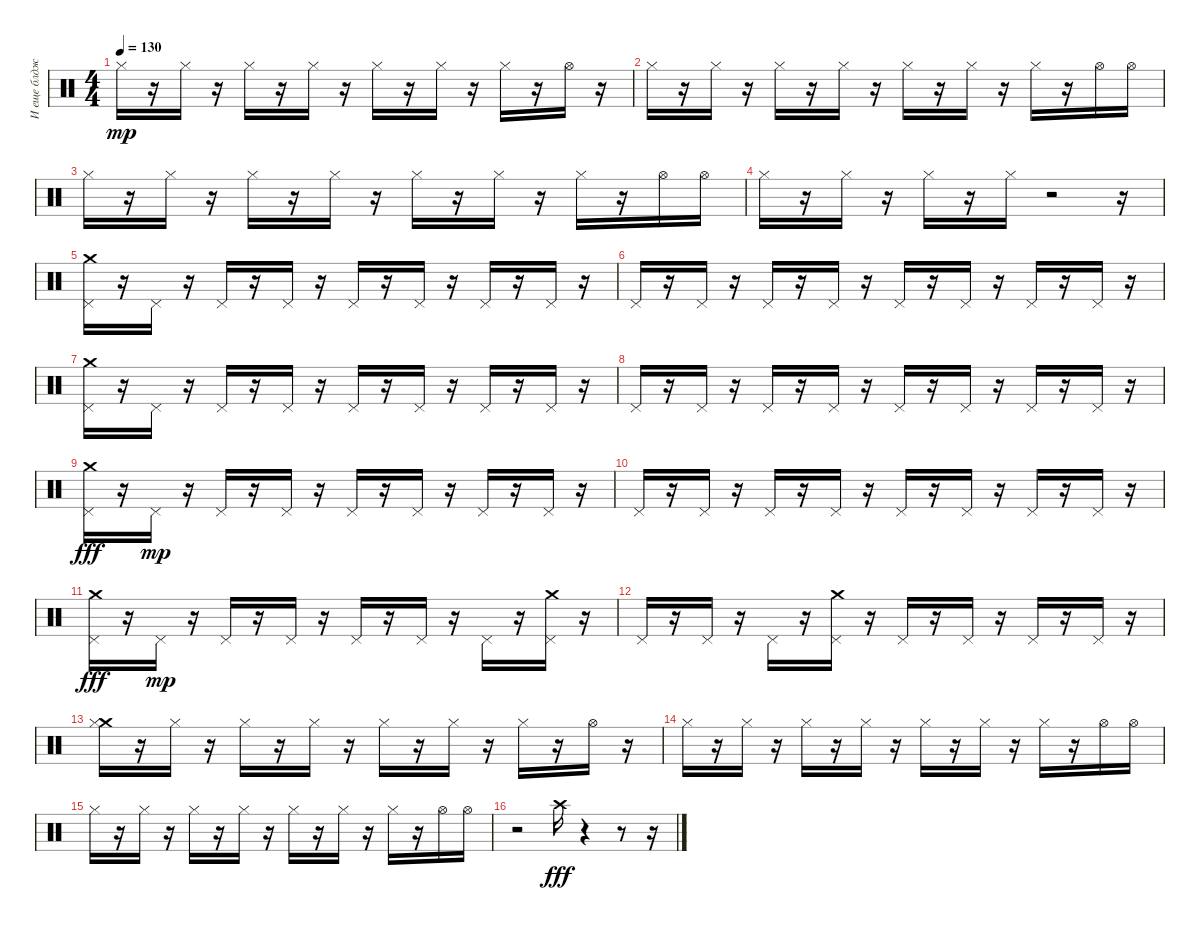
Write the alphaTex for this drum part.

\track ("И еще блджад" "И еще блдж") {instrument percussion}
\staff {score}
\articulation defaults
\ts (4 4)
\tempo 130
\clef neutral
\ks c "Hi-Hat (closed)".16{dy mp}
r.16 "Hi-Hat (closed)".16 r.16 "Hi-Hat (closed)".16 r.16 "Hi-Hat (closed)".16 r.16 "Hi-Hat (closed)".16 r.16 "Hi-Hat (closed)".16 r.16 "Hi-Hat (closed)".16 r.16 "Hi-Hat (open)".16 r.16 |
"Hi-Hat (closed)".16 r.16 "Hi-Hat (closed)".16 r.16 "Hi-Hat (closed)".16 r.16 "Hi-Hat (closed)".16 r.16 "Hi-Hat (closed)".16 r.16 "Hi-Hat (closed)".16 r.16 "Hi-Hat (closed)".16 r.16 "Hi-Hat (open)".16 "Hi-Hat (open)".16 |
"Hi-Hat (closed)".16 r.16 "Hi-Hat (closed)".16 r.16 "Hi-Hat (closed)".16 r.16 "Hi-Hat (closed)".16 r.16 "Hi-Hat (closed)".16 r.16 "Hi-Hat (closed)".16 r.16 "Hi-Hat (closed)".16 r.16 "Hi-Hat (open)".16 "Hi-Hat (open)".16 |
"Hi-Hat (closed)".16 r.16 "Hi-Hat (closed)".16 r.16 "Hi-Hat (closed)".16 r.16 "Hi-Hat (closed)".16 r.2 r.16 |
("Crash medium (hit)" "Pedal Hi-Hat (hit)").16 r.16 "Pedal Hi-Hat (hit)".16 r.16 "Pedal Hi-Hat (hit)".16 r.16 "Pedal Hi-Hat (hit)".16 r.16 "Pedal Hi-Hat (hit)".16 r.16 "Pedal Hi-Hat (hit)".16 r.16 "Pedal Hi-Hat (hit)".16 r.16 "Pedal Hi-Hat (hit)".16 r.16 |
"Pedal Hi-Hat (hit)".16 r.16 "Pedal Hi-Hat (hit)".16 r.16 "Pedal Hi-Hat (hit)".16 r.16 "Pedal Hi-Hat (hit)".16 r.16 "Pedal Hi-Hat (hit)".16 r.16 "Pedal Hi-Hat (hit)".16 r.16 "Pedal Hi-Hat (hit)".16 r.16 "Pedal Hi-Hat (hit)".16 r.16 |
("Crash medium (hit)" "Pedal Hi-Hat (hit)").16 r.16 "Pedal Hi-Hat (hit)".16 r.16 "Pedal Hi-Hat (hit)".16 r.16 "Pedal Hi-Hat (hit)".16 r.16 "Pedal Hi-Hat (hit)".16 r.16 "Pedal Hi-Hat (hit)".16 r.16 "Pedal Hi-Hat (hit)".16 r.16 "Pedal Hi-Hat (hit)".16 r.16 |
"Pedal Hi-Hat (hit)".16 r.16 "Pedal Hi-Hat (hit)".16 r.16 "Pedal Hi-Hat (hit)".16 r.16 "Pedal Hi-Hat (hit)".16 r.16 "Pedal Hi-Hat (hit)".16 r.16 "Pedal Hi-Hat (hit)".16 r.16 "Pedal Hi-Hat (hit)".16 r.16 "Pedal Hi-Hat (hit)".16 r.16 |
("Pedal Hi-Hat (hit)" "Crash medium (hit)").16{dy fff} r.16 "Pedal Hi-Hat (hit)".16{dy mp} r.16 "Pedal Hi-Hat (hit)".16 r.16 "Pedal Hi-Hat (hit)".16 r.16 "Pedal Hi-Hat (hit)".16 r.16 "Pedal Hi-Hat (hit)".16 r.16 "Pedal Hi-Hat (hit)".16 r.16 "Pedal Hi-Hat (hit)".16 r.16 |
"Pedal Hi-Hat (hit)".16 r.16 "Pedal Hi-Hat (hit)".16 r.16 "Pedal Hi-Hat (hit)".16 r.16 "Pedal Hi-Hat (hit)".16 r.16 "Pedal Hi-Hat (hit)".16 r.16 "Pedal Hi-Hat (hit)".16 r.16 "Pedal Hi-Hat (hit)".16 r.16 "Pedal Hi-Hat (hit)".16 r.16 |
("Pedal Hi-Hat (hit)" "Crash medium (hit)").16{dy fff} r.16 "Pedal Hi-Hat (hit)".16{dy mp} r.16 "Pedal Hi-Hat (hit)".16 r.16 "Pedal Hi-Hat (hit)".16 r.16 "Pedal Hi-Hat (hit)".16 r.16 "Pedal Hi-Hat (hit)".16 r.16 "Pedal Hi-Hat (hit)".16 r.16 ("Crash medium (hit)" "Pedal Hi-Hat (hit)").16 r.16 |
"Pedal Hi-Hat (hit)".16 r.16 "Pedal Hi-Hat (hit)".16 r.16 "Pedal Hi-Hat (hit)".16 r.16 ("Crash medium (hit)" "Pedal Hi-Hat (hit)").16 r.16 "Pedal Hi-Hat (hit)".16 r.16 "Pedal Hi-Hat (hit)".16 r.16 "Pedal Hi-Hat (hit)".16 r.16 "Pedal Hi-Hat (hit)".16 r.16 |
("Crash medium (hit)" "Hi-Hat (closed)").16 r.16 "Hi-Hat (closed)".16 r.16 "Hi-Hat (closed)".16 r.16 "Hi-Hat (closed)".16 r.16 "Hi-Hat (closed)".16 r.16 "Hi-Hat (closed)".16 r.16 "Hi-Hat (closed)".16 r.16 "Hi-Hat (open)".16 r.16 |
"Hi-Hat (closed)".16 r.16 "Hi-Hat (closed)".16 r.16 "Hi-Hat (closed)".16 r.16 "Hi-Hat (closed)".16 r.16 "Hi-Hat (closed)".16 r.16 "Hi-Hat (closed)".16 r.16 "Hi-Hat (closed)".16 r.16 "Hi-Hat (open)".16 "Hi-Hat (open)".16 |
"Hi-Hat (closed)".16 r.16 "Hi-Hat (closed)".16 r.16 "Hi-Hat (closed)".16 r.16 "Hi-Hat (closed)".16 r.16 "Hi-Hat (closed)".16 r.16 "Hi-Hat (closed)".16 r.16 "Hi-Hat (closed)".16 r.16 "Hi-Hat (open)".16 "Hi-Hat (open)".16 |
r.2 "Crash high (hit)".16{dy fff} r.4 r.8 r.16
